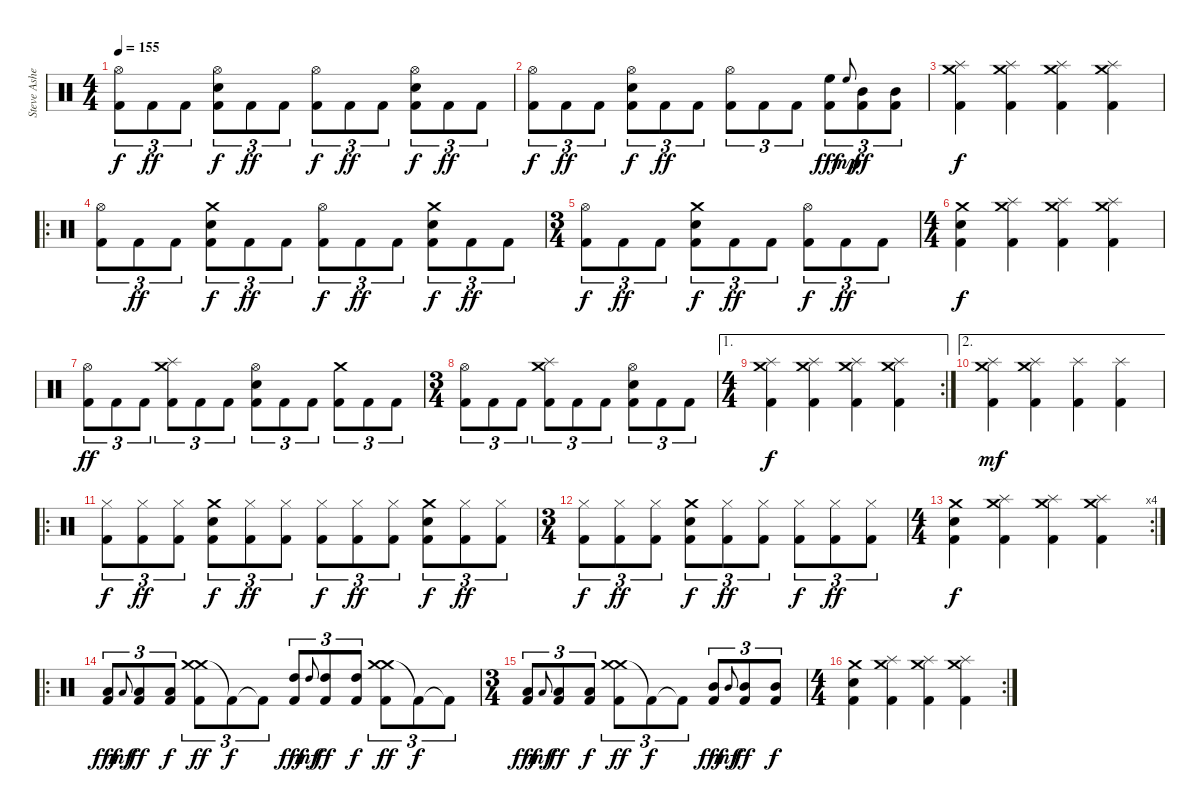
\track ("Steve Asheim " "Steve Ashe") {instrument percussion}
\staff {score}
\articulation defaults
\ts (4 4)
\tempo 155
\clef neutral
\ks c
("Hi-Hat (open)" "Kick (hit) 2").8{tu (3 2) dy f} "Kick (hit) 2".8{tu (3 2) dy ff} "Kick (hit) 2".8{tu (3 2)} ("Electric Snare (hit)" "Hi-Hat (open)" "Kick (hit) 2").8{tu (3 2) dy f} "Kick (hit) 2".8{tu (3 2) dy ff} "Kick (hit) 2".8{tu (3 2)} ("Hi-Hat (open)" "Kick (hit) 2").8{tu (3 2) dy f} "Kick (hit) 2".8{tu (3 2) dy ff} "Kick (hit) 2".8{tu (3 2)} ("Electric Snare (hit)" "Hi-Hat (open)" "Kick (hit) 2").8{tu (3 2) dy f} "Kick (hit) 2".8{tu (3 2) dy ff} "Kick (hit) 2".8{tu (3 2)} |
("Hi-Hat (open)" "Kick (hit) 2").8{tu (3 2) dy f} "Kick (hit) 2".8{tu (3 2) dy ff} "Kick (hit) 2".8{tu (3 2)} ("Electric Snare (hit)" "Hi-Hat (open)" "Kick (hit) 2").8{tu (3 2) dy f} "Kick (hit) 2".8{tu (3 2) dy ff} "Kick (hit) 2".8{tu (3 2)} ("Hi-Hat (open)" "Kick (hit) 2").8{tu (3 2)} "Kick (hit) 2".8{tu (3 2)} "Kick (hit) 2".8{tu (3 2)} ("High Floor Tom (hit)" "Kick (hit) 2").8{tu (3 2) dy fff} "High Floor Tom (hit)".8{gr onbeat dy mp} ("Mid Tom (hit)" "Kick (hit) 2").8{tu (3 2) dy ff} ("Mid Tom (hit)" "Kick (hit) 2").8{tu (3 2)} |
("Crash medium (hit)" "Splash (hit)" "Kick (hit) 2").4{dy f} ("Crash medium (hit)" "Splash (hit)" "Kick (hit) 2").4 ("Crash medium (hit)" "Splash (hit)" "Kick (hit) 2").4 ("Crash medium (hit)" "Splash (hit)" "Kick (hit) 2").4 |
\ro
("Hi-Hat (open)" "Kick (hit) 2").8{tu (3 2)} "Kick (hit) 2".8{tu (3 2) dy ff} "Kick (hit) 2".8{tu (3 2)} ("Electric Snare (hit)" "Crash medium (hit)" "Kick (hit) 2").8{tu (3 2) dy f} "Kick (hit) 2".8{tu (3 2) dy ff} "Kick (hit) 2".8{tu (3 2)} ("Hi-Hat (open)" "Kick (hit) 2").8{tu (3 2) dy f} "Kick (hit) 2".8{tu (3 2) dy ff} "Kick (hit) 2".8{tu (3 2)} ("Electric Snare (hit)" "Crash medium (hit)" "Kick (hit) 2").8{tu (3 2) dy f} "Kick (hit) 2".8{tu (3 2) dy ff} "Kick (hit) 2".8{tu (3 2)} |
\ts (3 4)
("Hi-Hat (open)" "Kick (hit) 2").8{tu (3 2) dy f} "Kick (hit) 2".8{tu (3 2) dy ff} "Kick (hit) 2".8{tu (3 2)} ("Electric Snare (hit)" "Crash medium (hit)" "Kick (hit) 2").8{tu (3 2) dy f} "Kick (hit) 2".8{tu (3 2) dy ff} "Kick (hit) 2".8{tu (3 2)} ("Hi-Hat (open)" "Kick (hit) 2").8{tu (3 2) dy f} "Kick (hit) 2".8{tu (3 2) dy ff} "Kick (hit) 2".8{tu (3 2)} |
\ts (4 4)
("Crash medium (hit)" "Electric Snare (hit)" "Kick (hit) 2").4{dy f} ("Crash medium (hit)" "Splash (hit)" "Kick (hit) 2").4 ("Crash medium (hit)" "Splash (hit)" "Kick (hit) 2").4 ("Crash medium (hit)" "Splash (hit)" "Kick (hit) 2").4 |
("Hi-Hat (open)" "Kick (hit) 2").8{tu (3 2) dy ff} "Kick (hit) 2".8{tu (3 2)} "Kick (hit) 2".8{tu (3 2)} ("Splash (hit)" "Crash medium (hit)" "Kick (hit) 2").8{tu (3 2)} "Kick (hit) 2".8{tu (3 2)} "Kick (hit) 2".8{tu (3 2)} ("Electric Snare (hit)" "Hi-Hat (open)" "Kick (hit) 2").8{tu (3 2)} "Kick (hit) 2".8{tu (3 2)} "Kick (hit) 2".8{tu (3 2)} ("Crash medium (hit)" "Kick (hit) 2").8{tu (3 2)} "Kick (hit) 2".8{tu (3 2)} "Kick (hit) 2".8{tu (3 2)} |
\ts (3 4)
("Hi-Hat (open)" "Kick (hit) 2").8{tu (3 2)} "Kick (hit) 2".8{tu (3 2)} "Kick (hit) 2".8{tu (3 2)} ("Splash (hit)" "Crash medium (hit)" "Kick (hit) 2").8{tu (3 2)} "Kick (hit) 2".8{tu (3 2)} "Kick (hit) 2".8{tu (3 2)} ("Electric Snare (hit)" "Hi-Hat (open)" "Kick (hit) 2").8{tu (3 2)} "Kick (hit) 2".8{tu (3 2)} "Kick (hit) 2".8{tu (3 2)} |
\ae 1
\rc 2
\ts (4 4)
("Crash medium (hit)" "Splash (hit)" "Kick (hit) 2").4{dy f} ("Crash medium (hit)" "Splash (hit)" "Kick (hit) 2").4 ("Crash medium (hit)" "Splash (hit)" "Kick (hit) 2").4 ("Crash medium (hit)" "Splash (hit)" "Kick (hit) 2").4 |
\ae 2
("Crash medium (hit)" "Splash (hit)" "Kick (hit) 2").4{dy mf} ("Crash medium (hit)" "Splash (hit)" "Kick (hit) 2").4 ("Splash (hit)" "Kick (hit) 2").4 ("Splash (hit)" "Kick (hit) 2").4 |
\ro
("Hi-Hat (closed)" "Kick (hit) 2").8{tu (3 2) dy f} ("Hi-Hat (closed)" "Kick (hit) 2").8{tu (3 2) dy ff} ("Hi-Hat (closed)" "Kick (hit) 2").8{tu (3 2)} ("Electric Snare (hit)" "Crash medium (hit)" "Kick (hit) 2").8{tu (3 2) dy f} ("Hi-Hat (closed)" "Kick (hit) 2").8{tu (3 2) dy ff} ("Hi-Hat (closed)" "Kick (hit) 2").8{tu (3 2)} ("Hi-Hat (closed)" "Kick (hit) 2").8{tu (3 2) dy f} ("Hi-Hat (closed)" "Kick (hit) 2").8{tu (3 2) dy ff} ("Hi-Hat (closed)" "Kick (hit) 2").8{tu (3 2)} ("Electric Snare (hit)" "Crash medium (hit)" "Kick (hit) 2").8{tu (3 2) dy f} ("Hi-Hat (closed)" "Kick (hit) 2").8{tu (3 2) dy ff} ("Hi-Hat (closed)" "Kick (hit) 2").8{tu (3 2)} |
\ts (3 4)
("Hi-Hat (closed)" "Kick (hit) 2").8{tu (3 2) dy f} ("Hi-Hat (closed)" "Kick (hit) 2").8{tu (3 2) dy ff} ("Hi-Hat (closed)" "Kick (hit) 2").8{tu (3 2)} ("Electric Snare (hit)" "Crash medium (hit)" "Kick (hit) 2").8{tu (3 2) dy f} ("Hi-Hat (closed)" "Kick (hit) 2").8{tu (3 2) dy ff} ("Hi-Hat (closed)" "Kick (hit) 2").8{tu (3 2)} ("Hi-Hat (closed)" "Kick (hit) 2").8{tu (3 2) dy f} ("Hi-Hat (closed)" "Kick (hit) 2").8{tu (3 2) dy ff} ("Hi-Hat (closed)" "Kick (hit) 2").8{tu (3 2)} |
\rc 4
\ts (4 4)
("Crash medium (hit)" "Electric Snare (hit)" "Kick (hit) 2").4{dy f} ("Crash medium (hit)" "Splash (hit)" "Kick (hit) 2").4 ("Crash medium (hit)" "Splash (hit)" "Kick (hit) 2").4 ("Crash medium (hit)" "Splash (hit)" "Kick (hit) 2").4 |
\ro
("Low Floor Tom (hit)" "Kick (hit) 2").8{tu (3 2) dy fff} "Low Floor Tom (hit)".8{gr onbeat dy mf} ("Low Floor Tom (hit)" "Kick (hit) 2").8{tu (3 2) dy ff} ("Low Floor Tom (hit)" "Kick (hit) 2").8{tu (3 2) dy f} ("Crash medium (hit)" "Crash medium (hit)" "Kick (hit) 2").8{tu (3 2) dy ff} "Kick (hit) 2"{t}.8{tu (3 2) dy f} "Kick (hit) 2"{t}.8{tu (3 2)} ("High Tom (hit)" "Kick (hit) 2").8{tu (3 2) dy fff} "High Tom (hit)".8{gr onbeat dy mf} ("High Tom (hit)" "Kick (hit) 2").8{tu (3 2) dy ff} ("High Tom (hit)" "Kick (hit) 2").8{tu (3 2) dy f} ("Crash medium (hit)" "Crash medium (hit)" "Kick (hit) 2").8{tu (3 2) dy ff} "Kick (hit) 2"{t}.8{tu (3 2) dy f} "Kick (hit) 2"{t}.8{tu (3 2)} |
\ts (3 4)
("Low Floor Tom (hit)" "Kick (hit) 2").8{tu (3 2) dy fff} "Low Floor Tom (hit)".8{gr onbeat dy mf} ("Low Floor Tom (hit)" "Kick (hit) 2").8{tu (3 2) dy ff} ("Low Floor Tom (hit)" "Kick (hit) 2").8{tu (3 2) dy f} ("Crash medium (hit)" "Crash medium (hit)" "Kick (hit) 2").8{tu (3 2) dy ff} "Kick (hit) 2"{t}.8{tu (3 2) dy f} "Kick (hit) 2"{t}.8{tu (3 2)} ("Mid Tom (hit)" "Kick (hit) 2").8{tu (3 2) dy fff} "Mid Tom (hit)".8{gr onbeat dy mf} ("Mid Tom (hit)" "Kick (hit) 2").8{tu (3 2) dy ff} ("Mid Tom (hit)" "Kick (hit) 2").8{tu (3 2) dy f} |
\rc 2
\ts (4 4)
("Crash medium (hit)" "Electric Snare (hit)" "Kick (hit) 2").4 ("Crash medium (hit)" "Splash (hit)" "Kick (hit) 2").4 ("Crash medium (hit)" "Splash (hit)" "Kick (hit) 2").4 ("Crash medium (hit)" "Splash (hit)" "Kick (hit) 2").4
